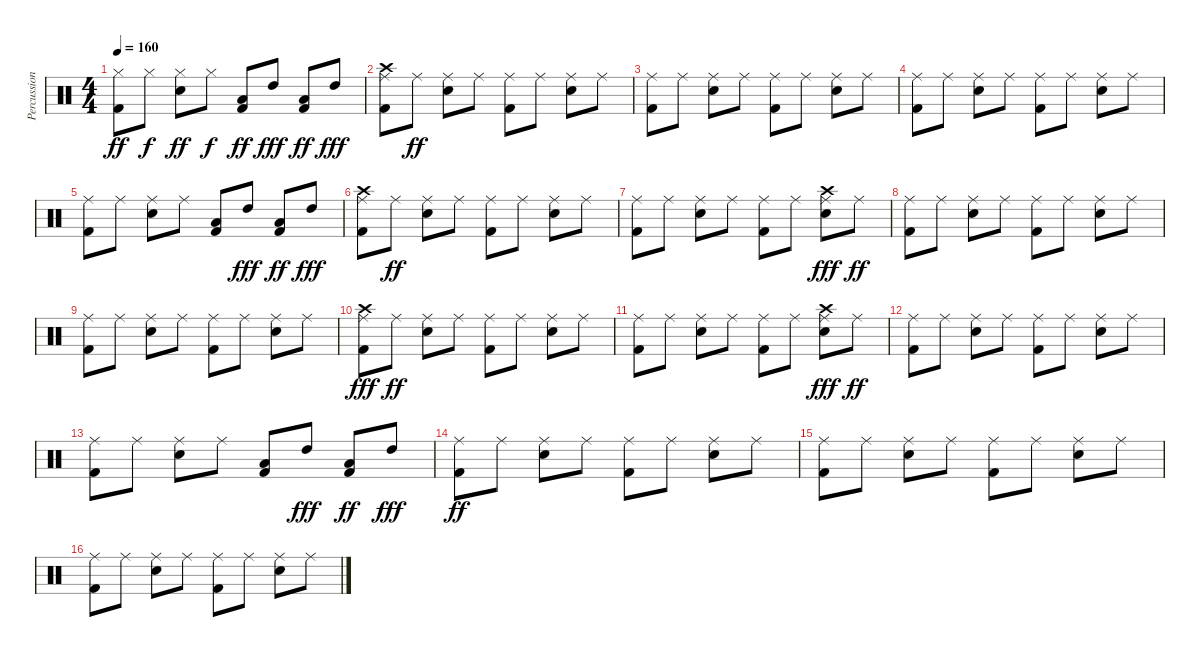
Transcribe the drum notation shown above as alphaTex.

\track ("Percussion" "Percussion") {instrument percussion}
\staff {score}
\articulation defaults
\ts (4 4)
\tempo 160
\clef neutral
\ks c
("Hi-Hat (closed)" "Kick (hit) 2").8{dy ff} "Hi-Hat (closed)".8{dy f} ("Hi-Hat (closed)" "Snare (hit) 2").8{dy ff} "Hi-Hat (closed)".8{dy f} ("Low Floor Tom (hit)" "Kick (hit) 2").8{dy ff} "High Tom (hit)".8{dy fff} ("Low Floor Tom (hit)" "Kick (hit) 2").8{dy ff} "High Tom (hit)".8{dy fff} |
("Ride (middle)" "Kick (hit) 2" "Crash high (hit)").8 "Ride (middle)".8{dy ff} ("Ride (middle)" "Snare (hit) 2").8 "Ride (middle)".8 ("Ride (middle)" "Kick (hit) 2").8 "Ride (middle)".8 ("Ride (middle)" "Snare (hit) 2").8 "Ride (middle)".8 |
("Ride (middle)" "Kick (hit) 2").8 "Ride (middle)".8 ("Ride (middle)" "Snare (hit) 2").8 "Ride (middle)".8 ("Ride (middle)" "Kick (hit) 2").8 "Ride (middle)".8 ("Ride (middle)" "Snare (hit) 2").8 "Ride (middle)".8 |
("Ride (middle)" "Kick (hit) 2").8 "Ride (middle)".8 ("Ride (middle)" "Snare (hit) 2").8 "Ride (middle)".8 ("Ride (middle)" "Kick (hit) 2").8 "Ride (middle)".8 ("Ride (middle)" "Snare (hit) 2").8 "Ride (middle)".8 |
("Ride (middle)" "Kick (hit) 2").8 "Ride (middle)".8 ("Ride (middle)" "Snare (hit) 2").8 "Ride (middle)".8 ("Low Floor Tom (hit)" "Kick (hit) 2").8 "High Tom (hit)".8{dy fff} ("Low Floor Tom (hit)" "Kick (hit) 2").8{dy ff} "High Tom (hit)".8{dy fff} |
("Ride (middle)" "Kick (hit) 2" "Crash high (hit)").8 "Ride (middle)".8{dy ff} ("Ride (middle)" "Snare (hit) 2").8 "Ride (middle)".8 ("Ride (middle)" "Kick (hit) 2").8 "Ride (middle)".8 ("Ride (middle)" "Snare (hit) 2").8 "Ride (middle)".8 |
("Ride (middle)" "Kick (hit) 2").8 "Ride (middle)".8 ("Ride (middle)" "Snare (hit) 2").8 "Ride (middle)".8 ("Ride (middle)" "Kick (hit) 2").8 "Ride (middle)".8 ("Ride (middle)" "Snare (hit) 2" "Crash high (hit)").8{dy fff} "Ride (middle)".8{dy ff} |
("Ride (middle)" "Kick (hit) 2").8 "Ride (middle)".8 ("Ride (middle)" "Snare (hit) 2").8 "Ride (middle)".8 ("Ride (middle)" "Kick (hit) 2").8 "Ride (middle)".8 ("Ride (middle)" "Snare (hit) 2").8 "Ride (middle)".8 |
("Ride (middle)" "Kick (hit) 2").8 "Ride (middle)".8 ("Ride (middle)" "Snare (hit) 2").8 "Ride (middle)".8 ("Ride (middle)" "Kick (hit) 2").8 "Ride (middle)".8 ("Ride (middle)" "Snare (hit) 2").8 "Ride (middle)".8 |
("Ride (middle)" "Kick (hit) 2" "Crash high (hit)").8{dy fff} "Ride (middle)".8{dy ff} ("Ride (middle)" "Snare (hit) 2").8 "Ride (middle)".8 ("Ride (middle)" "Kick (hit) 2").8 "Ride (middle)".8 ("Ride (middle)" "Snare (hit) 2").8 "Ride (middle)".8 |
("Ride (middle)" "Kick (hit) 2").8 "Ride (middle)".8 ("Ride (middle)" "Snare (hit) 2").8 "Ride (middle)".8 ("Ride (middle)" "Kick (hit) 2").8 "Ride (middle)".8 ("Ride (middle)" "Snare (hit) 2" "Crash high (hit)").8{dy fff} "Ride (middle)".8{dy ff} |
("Ride (middle)" "Kick (hit) 2").8 "Ride (middle)".8 ("Ride (middle)" "Snare (hit) 2").8 "Ride (middle)".8 ("Ride (middle)" "Kick (hit) 2").8 "Ride (middle)".8 ("Ride (middle)" "Snare (hit) 2").8 "Ride (middle)".8 |
("Ride (middle)" "Kick (hit) 2").8 "Ride (middle)".8 ("Ride (middle)" "Snare (hit) 2").8 "Ride (middle)".8 ("Low Floor Tom (hit)" "Kick (hit) 2").8 "High Tom (hit)".8{dy fff} ("Low Floor Tom (hit)" "Kick (hit) 2").8{dy ff} "High Tom (hit)".8{dy fff} |
("Ride (middle)" "Kick (hit) 2").8{dy ff} "Ride (middle)".8 ("Ride (middle)" "Snare (hit) 2").8 "Ride (middle)".8 ("Ride (middle)" "Kick (hit) 2").8 "Ride (middle)".8 ("Ride (middle)" "Snare (hit) 2").8 "Ride (middle)".8 |
("Ride (middle)" "Kick (hit) 2").8 "Ride (middle)".8 ("Ride (middle)" "Snare (hit) 2").8 "Ride (middle)".8 ("Ride (middle)" "Kick (hit) 2").8 "Ride (middle)".8 ("Ride (middle)" "Snare (hit) 2").8 "Ride (middle)".8 |
("Ride (middle)" "Kick (hit) 2").8 "Ride (middle)".8 ("Ride (middle)" "Snare (hit) 2").8 "Ride (middle)".8 ("Ride (middle)" "Kick (hit) 2").8 "Ride (middle)".8 ("Ride (middle)" "Snare (hit) 2").8 "Ride (middle)".8
